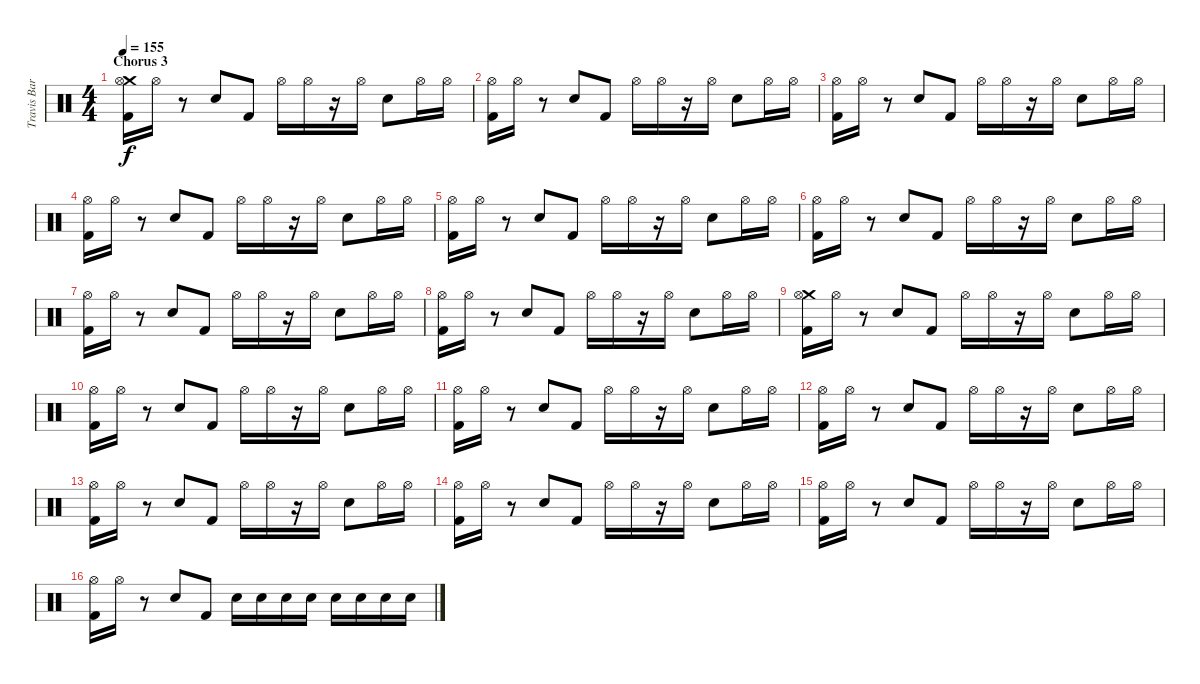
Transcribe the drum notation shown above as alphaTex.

\track ("Travis Barker Drums" "Travis Bar") {instrument percussion}
\staff {score}
\articulation defaults
\ts (4 4)
\section ("" "Chorus 3")
\tempo 155
\clef neutral
\ks c
("Crash medium (hit)" "Hi-Hat (open)" "Kick (hit) 2").16{dy f} "Hi-Hat (open)".16 r.8 "Electric Snare (hit)".8 "Kick (hit) 2".8 "Hi-Hat (open)".16 "Hi-Hat (open)".16 r.16 "Hi-Hat (open)".16 "Electric Snare (hit)".8 "Hi-Hat (open)".16 "Hi-Hat (open)".16 |
("Hi-Hat (open)" "Kick (hit) 2").16 "Hi-Hat (open)".16 r.8 "Electric Snare (hit)".8 "Kick (hit) 2".8 "Hi-Hat (open)".16 "Hi-Hat (open)".16 r.16 "Hi-Hat (open)".16 "Electric Snare (hit)".8 "Hi-Hat (open)".16 "Hi-Hat (open)".16 |
("Hi-Hat (open)" "Kick (hit) 2").16 "Hi-Hat (open)".16 r.8 "Electric Snare (hit)".8 "Kick (hit) 2".8 "Hi-Hat (open)".16 "Hi-Hat (open)".16 r.16 "Hi-Hat (open)".16 "Electric Snare (hit)".8 "Hi-Hat (open)".16 "Hi-Hat (open)".16 |
("Hi-Hat (open)" "Kick (hit) 2").16 "Hi-Hat (open)".16 r.8 "Electric Snare (hit)".8 "Kick (hit) 2".8 "Hi-Hat (open)".16 "Hi-Hat (open)".16 r.16 "Hi-Hat (open)".16 "Electric Snare (hit)".8 "Hi-Hat (open)".16 "Hi-Hat (open)".16 |
("Hi-Hat (open)" "Kick (hit) 2").16 "Hi-Hat (open)".16 r.8 "Electric Snare (hit)".8 "Kick (hit) 2".8 "Hi-Hat (open)".16 "Hi-Hat (open)".16 r.16 "Hi-Hat (open)".16 "Electric Snare (hit)".8 "Hi-Hat (open)".16 "Hi-Hat (open)".16 |
("Hi-Hat (open)" "Kick (hit) 2").16 "Hi-Hat (open)".16 r.8 "Electric Snare (hit)".8 "Kick (hit) 2".8 "Hi-Hat (open)".16 "Hi-Hat (open)".16 r.16 "Hi-Hat (open)".16 "Electric Snare (hit)".8 "Hi-Hat (open)".16 "Hi-Hat (open)".16 |
("Hi-Hat (open)" "Kick (hit) 2").16 "Hi-Hat (open)".16 r.8 "Electric Snare (hit)".8 "Kick (hit) 2".8 "Hi-Hat (open)".16 "Hi-Hat (open)".16 r.16 "Hi-Hat (open)".16 "Electric Snare (hit)".8 "Hi-Hat (open)".16 "Hi-Hat (open)".16 |
("Hi-Hat (open)" "Kick (hit) 2").16 "Hi-Hat (open)".16 r.8 "Electric Snare (hit)".8 "Kick (hit) 2".8 "Hi-Hat (open)".16 "Hi-Hat (open)".16 r.16 "Hi-Hat (open)".16 "Electric Snare (hit)".8 "Hi-Hat (open)".16 "Hi-Hat (open)".16 |
("Crash medium (hit)" "Hi-Hat (open)" "Kick (hit) 2").16 "Hi-Hat (open)".16 r.8 "Electric Snare (hit)".8 "Kick (hit) 2".8 "Hi-Hat (open)".16 "Hi-Hat (open)".16 r.16 "Hi-Hat (open)".16 "Electric Snare (hit)".8 "Hi-Hat (open)".16 "Hi-Hat (open)".16 |
("Hi-Hat (open)" "Kick (hit) 2").16 "Hi-Hat (open)".16 r.8 "Electric Snare (hit)".8 "Kick (hit) 2".8 "Hi-Hat (open)".16 "Hi-Hat (open)".16 r.16 "Hi-Hat (open)".16 "Electric Snare (hit)".8 "Hi-Hat (open)".16 "Hi-Hat (open)".16 |
("Hi-Hat (open)" "Kick (hit) 2").16 "Hi-Hat (open)".16 r.8 "Electric Snare (hit)".8 "Kick (hit) 2".8 "Hi-Hat (open)".16 "Hi-Hat (open)".16 r.16 "Hi-Hat (open)".16 "Electric Snare (hit)".8 "Hi-Hat (open)".16 "Hi-Hat (open)".16 |
("Hi-Hat (open)" "Kick (hit) 2").16 "Hi-Hat (open)".16 r.8 "Electric Snare (hit)".8 "Kick (hit) 2".8 "Hi-Hat (open)".16 "Hi-Hat (open)".16 r.16 "Hi-Hat (open)".16 "Electric Snare (hit)".8 "Hi-Hat (open)".16 "Hi-Hat (open)".16 |
("Hi-Hat (open)" "Kick (hit) 2").16 "Hi-Hat (open)".16 r.8 "Electric Snare (hit)".8 "Kick (hit) 2".8 "Hi-Hat (open)".16 "Hi-Hat (open)".16 r.16 "Hi-Hat (open)".16 "Electric Snare (hit)".8 "Hi-Hat (open)".16 "Hi-Hat (open)".16 |
("Hi-Hat (open)" "Kick (hit) 2").16 "Hi-Hat (open)".16 r.8 "Electric Snare (hit)".8 "Kick (hit) 2".8 "Hi-Hat (open)".16 "Hi-Hat (open)".16 r.16 "Hi-Hat (open)".16 "Electric Snare (hit)".8 "Hi-Hat (open)".16 "Hi-Hat (open)".16 |
("Hi-Hat (open)" "Kick (hit) 2").16 "Hi-Hat (open)".16 r.8 "Electric Snare (hit)".8 "Kick (hit) 2".8 "Hi-Hat (open)".16 "Hi-Hat (open)".16 r.16 "Hi-Hat (open)".16 "Electric Snare (hit)".8 "Hi-Hat (open)".16 "Hi-Hat (open)".16 |
("Hi-Hat (open)" "Kick (hit) 2").16 "Hi-Hat (open)".16 r.8 "Electric Snare (hit)".8 "Kick (hit) 2".8 "Electric Snare (hit)".16 "Electric Snare (hit)".16 "Electric Snare (hit)".16 "Electric Snare (hit)".16 "Electric Snare (hit)".16 "Electric Snare (hit)".16 "Electric Snare (hit)".16 "Electric Snare (hit)".16
